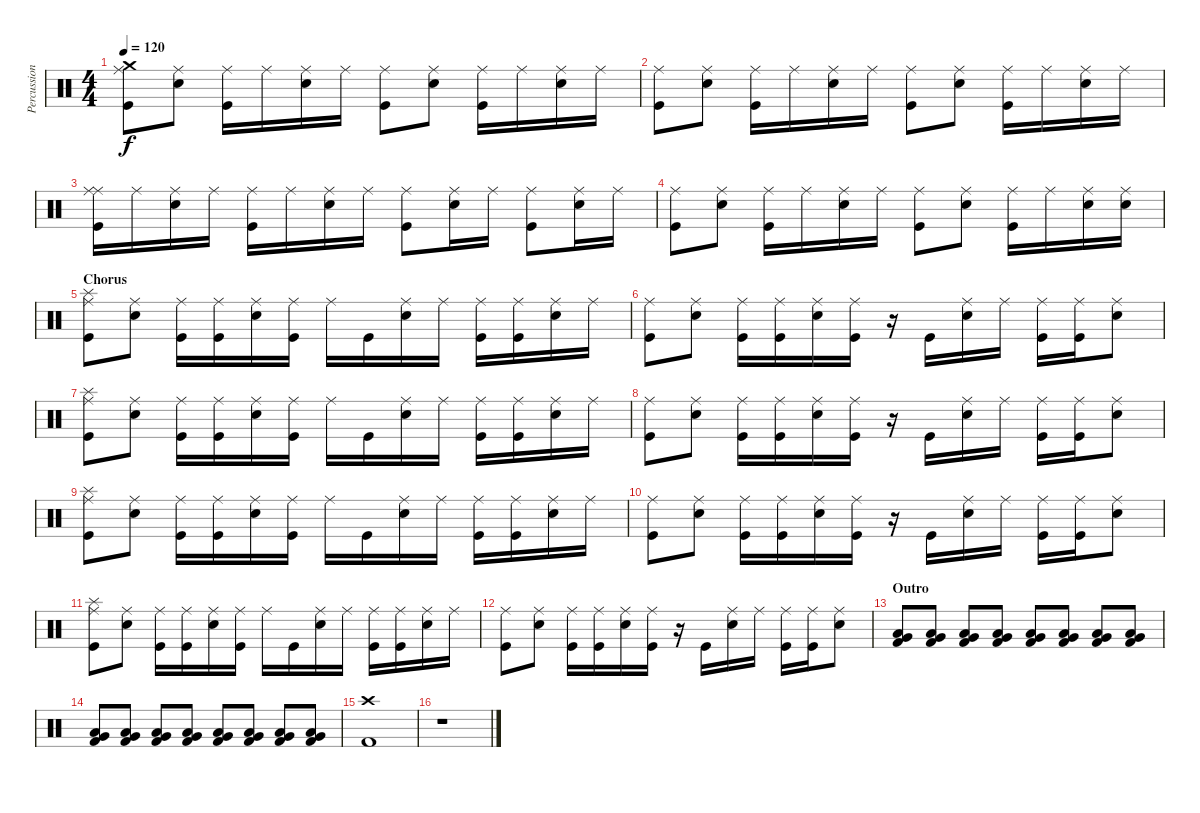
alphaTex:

\track ("Percussion" "Percussion") {instrument percussion}
\staff {score}
\articulation defaults
\ts (4 4)
\tempo 120
\clef neutral
\ks c
("Kick (hit)" "Crash medium (hit)" "Ride (middle)").8{dy f} ("Snare (hit) 2" "Ride (middle)").8 ("Kick (hit)" "Ride (middle)").16 "Ride (middle)".16 ("Snare (hit) 2" "Ride (middle)").16 "Ride (middle)".16 ("Kick (hit)" "Ride (middle)").8 ("Snare (hit) 2" "Ride (middle)").8 ("Kick (hit)" "Ride (middle)").16 "Ride (middle)".16 ("Snare (hit) 2" "Ride (middle)").16 "Ride (middle)".16 |
("Kick (hit)" "Ride (middle)").8 ("Snare (hit) 2" "Ride (middle)").8 ("Kick (hit)" "Ride (middle)").16 "Ride (middle)".16 ("Snare (hit) 2" "Ride (middle)").16 "Ride (middle)".16 ("Kick (hit)" "Ride (middle)").8 ("Snare (hit) 2" "Ride (middle)").8 ("Kick (hit)" "Ride (middle)").16 "Ride (middle)".16 ("Snare (hit) 2" "Ride (middle)").16 "Ride (middle)".16 |
("Kick (hit)" "Ride (middle)" "Ride (middle)").16 "Ride (middle)".16 ("Snare (hit) 2" "Ride (middle)").16 "Ride (middle)".16 ("Kick (hit)" "Ride (middle)").16 "Ride (middle)".16 ("Snare (hit) 2" "Ride (middle)").16 "Ride (middle)".16 ("Kick (hit)" "Ride (middle)").8 ("Snare (hit) 2" "Ride (middle)").16 "Ride (middle)".16 ("Kick (hit)" "Ride (middle)").8 ("Snare (hit) 2" "Ride (middle)").16 "Ride (middle)".16 |
("Kick (hit)" "Ride (middle)").8 ("Snare (hit) 2" "Ride (middle)").8 ("Kick (hit)" "Ride (middle)").16 "Ride (middle)".16 ("Snare (hit) 2" "Ride (middle)").16 "Ride (middle)".16 ("Kick (hit)" "Ride (middle)").8 ("Snare (hit) 2" "Ride (middle)").8 ("Kick (hit)" "Ride (middle)").16 "Ride (middle)".16 ("Snare (hit) 2" "Ride (middle)").16 ("Snare (hit) 2" "Ride (middle)").16 |
\section ("" "Chorus")
("Kick (hit)" "Splash (hit)" "Ride (middle)").8 ("Snare (hit) 2" "Ride (middle)").8 ("Kick (hit)" "Ride (middle)").16 ("Kick (hit)" "Ride (middle)").16 ("Snare (hit) 2" "Ride (middle)").16 ("Kick (hit)" "Ride (middle)").16 "Ride (middle)".16 "Kick (hit)".16 ("Snare (hit) 2" "Ride (middle)").16 "Ride (middle)".16 ("Kick (hit)" "Ride (middle)").16 ("Kick (hit)" "Ride (middle)").16 ("Snare (hit) 2" "Ride (middle)").16 "Ride (middle)".16 |
("Kick (hit)" "Ride (middle)").8 ("Snare (hit) 2" "Ride (middle)").8 ("Kick (hit)" "Ride (middle)").16 ("Kick (hit)" "Ride (middle)").16 ("Snare (hit) 2" "Ride (middle)").16 ("Kick (hit)" "Ride (middle)").16 r.16 "Kick (hit)".16 ("Snare (hit) 2" "Ride (middle)").16 "Ride (middle)".16 ("Kick (hit)" "Ride (middle)").16 ("Kick (hit)" "Ride (middle)").16 ("Snare (hit) 2" "Ride (middle)").8 |
("Kick (hit)" "Splash (hit)" "Ride (middle)").8 ("Snare (hit) 2" "Ride (middle)").8 ("Kick (hit)" "Ride (middle)").16 ("Kick (hit)" "Ride (middle)").16 ("Snare (hit) 2" "Ride (middle)").16 ("Kick (hit)" "Ride (middle)").16 "Ride (middle)".16 "Kick (hit)".16 ("Snare (hit) 2" "Ride (middle)").16 "Ride (middle)".16 ("Kick (hit)" "Ride (middle)").16 ("Kick (hit)" "Ride (middle)").16 ("Snare (hit) 2" "Ride (middle)").16 "Ride (middle)".16 |
("Kick (hit)" "Ride (middle)").8 ("Snare (hit) 2" "Ride (middle)").8 ("Kick (hit)" "Ride (middle)").16 ("Kick (hit)" "Ride (middle)").16 ("Snare (hit) 2" "Ride (middle)").16 ("Kick (hit)" "Ride (middle)").16 r.16 "Kick (hit)".16 ("Snare (hit) 2" "Ride (middle)").16 "Ride (middle)".16 ("Kick (hit)" "Ride (middle)").16 ("Kick (hit)" "Ride (middle)").16 ("Snare (hit) 2" "Ride (middle)").8 |
("Kick (hit)" "Splash (hit)" "Ride (middle)").8 ("Snare (hit) 2" "Ride (middle)").8 ("Kick (hit)" "Ride (middle)").16 ("Kick (hit)" "Ride (middle)").16 ("Snare (hit) 2" "Ride (middle)").16 ("Kick (hit)" "Ride (middle)").16 "Ride (middle)".16 "Kick (hit)".16 ("Snare (hit) 2" "Ride (middle)").16 "Ride (middle)".16 ("Kick (hit)" "Ride (middle)").16 ("Kick (hit)" "Ride (middle)").16 ("Snare (hit) 2" "Ride (middle)").16 "Ride (middle)".16 |
("Kick (hit)" "Ride (middle)").8 ("Snare (hit) 2" "Ride (middle)").8 ("Kick (hit)" "Ride (middle)").16 ("Kick (hit)" "Ride (middle)").16 ("Snare (hit) 2" "Ride (middle)").16 ("Kick (hit)" "Ride (middle)").16 r.16 "Kick (hit)".16 ("Snare (hit) 2" "Ride (middle)").16 "Ride (middle)".16 ("Kick (hit)" "Ride (middle)").16 ("Kick (hit)" "Ride (middle)").16 ("Snare (hit) 2" "Ride (middle)").8 |
("Kick (hit)" "Splash (hit)" "Ride (middle)").8 ("Snare (hit) 2" "Ride (middle)").8 ("Kick (hit)" "Ride (middle)").16 ("Kick (hit)" "Ride (middle)").16 ("Snare (hit) 2" "Ride (middle)").16 ("Kick (hit)" "Ride (middle)").16 "Ride (middle)".16 "Kick (hit)".16 ("Snare (hit) 2" "Ride (middle)").16 "Ride (middle)".16 ("Kick (hit)" "Ride (middle)").16 ("Kick (hit)" "Ride (middle)").16 ("Snare (hit) 2" "Ride (middle)").16 "Ride (middle)".16 |
("Kick (hit)" "Ride (middle)").8 ("Snare (hit) 2" "Ride (middle)").8 ("Kick (hit)" "Ride (middle)").16 ("Kick (hit)" "Ride (middle)").16 ("Snare (hit) 2" "Ride (middle)").16 ("Kick (hit)" "Ride (middle)").16 r.16 "Kick (hit)".16 ("Snare (hit) 2" "Ride (middle)").16 "Ride (middle)".16 ("Kick (hit)" "Ride (middle)").16 ("Kick (hit)" "Ride (middle)").16 ("Snare (hit) 2" "Ride (middle)").8 |
\section ("" "Outro")
("Kick (hit) 2" "Very Low Tom (hit)" "Low Tom (hit)").8 ("Kick (hit) 2" "Very Low Tom (hit)" "Low Tom (hit)").8 ("Kick (hit) 2" "Very Low Tom (hit)" "Low Tom (hit)").8 ("Kick (hit) 2" "Very Low Tom (hit)" "Low Tom (hit)").8 ("Kick (hit) 2" "Very Low Tom (hit)" "Low Tom (hit)").8 ("Kick (hit) 2" "Very Low Tom (hit)" "Low Tom (hit)").8 ("Kick (hit) 2" "Very Low Tom (hit)" "Low Tom (hit)").8 ("Kick (hit) 2" "Very Low Tom (hit)" "Low Tom (hit)").8 |
("Kick (hit) 2" "Very Low Tom (hit)" "Low Tom (hit)").8 ("Kick (hit) 2" "Very Low Tom (hit)" "Low Tom (hit)").8 ("Kick (hit) 2" "Very Low Tom (hit)" "Low Tom (hit)").8 ("Kick (hit) 2" "Very Low Tom (hit)" "Low Tom (hit)").8 ("Kick (hit) 2" "Very Low Tom (hit)" "Low Tom (hit)").8 ("Kick (hit) 2" "Very Low Tom (hit)" "Low Tom (hit)").8 ("Kick (hit) 2" "Very Low Tom (hit)" "Low Tom (hit)").8 ("Kick (hit) 2" "Very Low Tom (hit)" "Low Tom (hit)").8 |
("Crash high (hit)" "Kick (hit) 2").1 |
r.1
